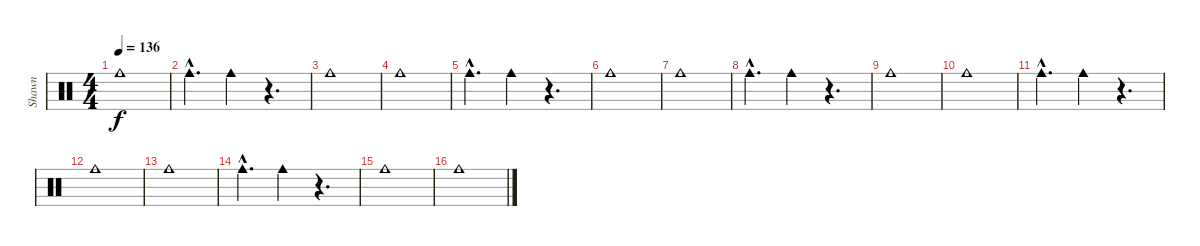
\track ("Shawn" "Shawn") {instrument percussion}
\staff {score}
\articulation defaults
\ts (4 4)
\tempo 136
\clef neutral
\ks c "Cowbell medium (hit)".1{dy f}
|
"Cowbell medium (hit)"{hac}.4{d} "Cowbell medium (hit)".4 r.4{d} |
"Cowbell medium (hit)".1 |
"Cowbell medium (hit)".1 |
"Cowbell medium (hit)"{hac}.4{d} "Cowbell medium (hit)".4 r.4{d} |
"Cowbell medium (hit)".1 |
"Cowbell medium (hit)".1 |
"Cowbell medium (hit)"{hac}.4{d} "Cowbell medium (hit)".4 r.4{d} |
"Cowbell medium (hit)".1 |
"Cowbell medium (hit)".1 |
"Cowbell medium (hit)"{hac}.4{d} "Cowbell medium (hit)".4 r.4{d} |
"Cowbell medium (hit)".1 |
"Cowbell medium (hit)".1 |
"Cowbell medium (hit)"{hac}.4{d} "Cowbell medium (hit)".4 r.4{d} |
"Cowbell medium (hit)".1 |
"Cowbell medium (hit)".1
